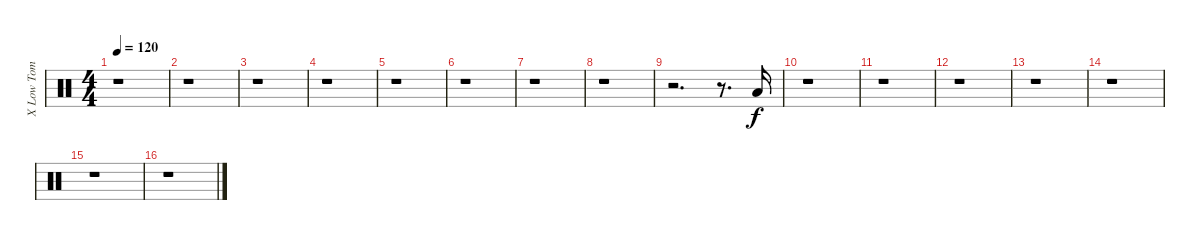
\track ("X Low Tom           " "X Low Tom ") {instrument percussion}
\staff {score}
\articulation defaults
\ts (4 4)
\tempo 120
\clef neutral
\ks c
r.1{dy f} |
r.1 |
r.1 |
r.1 |
r.1 |
r.1 |
r.1 |
r.1 |
r.2{d} r.8{d} "Low Floor Tom (hit)".16 |
r.1 |
r.1 |
r.1 |
r.1 |
r.1 |
r.1 |
r.1
